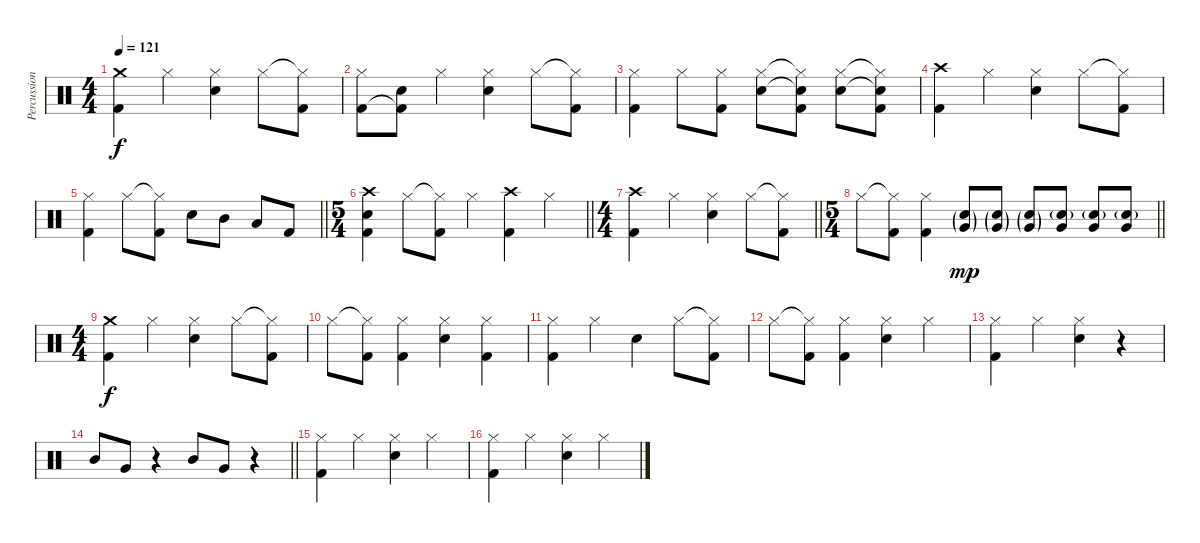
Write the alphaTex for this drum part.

\track ("Percussioni" "Percussion") {instrument percussion}
\staff {score}
\articulation defaults
\ts (4 4)
\tempo 121
\clef neutral
\ks c
("Crash medium (hit)" "Kick (hit) 2").4{dy f} "Hi-Hat (closed)".4 ("Hi-Hat (closed)" "Snare (hit) 2").4 "Hi-Hat (closed)".8 ("Hi-Hat (closed)"{t} "Kick (hit) 2").8 |
("Hi-Hat (closed)" "Kick (hit) 2").8 ("Snare (hit) 2" "Kick (hit) 2"{t}).8 "Hi-Hat (closed)".4 ("Hi-Hat (closed)" "Snare (hit) 2").4 "Hi-Hat (closed)".8 ("Hi-Hat (closed)"{t} "Kick (hit) 2").8 |
("Hi-Hat (closed)" "Kick (hit) 2").4 "Hi-Hat (closed)".8 ("Hi-Hat (closed)" "Kick (hit) 2").8 ("Hi-Hat (closed)" "Snare (hit) 2").8 ("Hi-Hat (closed)"{t} "Snare (hit) 2"{t} "Kick (hit) 2").8 ("Hi-Hat (closed)" "Snare (hit) 2").8 ("Hi-Hat (closed)"{t} "Snare (hit) 2"{t} "Kick (hit) 2").8 |
("Crash high (hit)" "Kick (hit) 2").4 "Hi-Hat (closed)".4 ("Hi-Hat (closed)" "Snare (hit) 2").4 "Hi-Hat (closed)".8 ("Hi-Hat (closed)"{t} "Kick (hit) 2").8 |
\barLineRight lightlight
("Hi-Hat (closed)" "Kick (hit) 2").4 "Hi-Hat (closed)".8 ("Hi-Hat (closed)"{t} "Kick (hit) 2").8 "Snare (hit) 2".8 "Mid Tom (hit)".8 "Low Tom (hit)".8 "Kick (hit) 2".8 |
\ts (5 4)
\barLineRight lightlight
("Crash high (hit)" "Snare (hit) 2" "Kick (hit) 2").4 "Hi-Hat (closed)".8 ("Hi-Hat (closed)"{t} "Kick (hit) 2").8 "Hi-Hat (closed)".4 ("Crash high (hit)" "Kick (hit) 2").4 "Hi-Hat (closed)".4 |
\ts (4 4)
\barLineRight lightlight
("Crash high (hit)" "Kick (hit) 2").4 "Hi-Hat (closed)".4 ("Hi-Hat (closed)" "Snare (hit) 2").4 "Hi-Hat (closed)".8 ("Hi-Hat (closed)"{t} "Kick (hit) 2").8 |
\ts (5 4)
\barLineRight lightlight "Hi-Hat (closed)".8
("Hi-Hat (closed)"{t} "Kick (hit) 2").8 ("Hi-Hat (closed)" "Kick (hit) 2").4 ("Snare (hit) 2"{g} "Very Low Tom (hit)"{g}).8{dy mp} ("Snare (hit) 2"{g} "Very Low Tom (hit)"{g}).8 ("Snare (hit) 2"{g} "Very Low Tom (hit)"{g}).8 ("Snare (hit) 2"{g} "Very Low Tom (hit)").8 ("Snare (hit) 2"{g} "Very Low Tom (hit)").8 ("Snare (hit) 2"{g} "Very Low Tom (hit)").8 |
\ts (4 4)
("Crash medium (hit)" "Kick (hit) 2").4{dy f} "Hi-Hat (closed)".4 ("Hi-Hat (closed)" "Snare (hit) 2").4 "Hi-Hat (closed)".8 ("Hi-Hat (closed)"{t} "Kick (hit) 2").8 |
"Hi-Hat (closed)".8 ("Hi-Hat (closed)"{t} "Kick (hit) 2").8 ("Hi-Hat (closed)" "Kick (hit) 2").4 ("Hi-Hat (closed)" "Snare (hit) 2").4 ("Hi-Hat (closed)" "Kick (hit) 2").4 |
("Hi-Hat (closed)" "Kick (hit) 2").4 "Hi-Hat (closed)".4 "Snare (hit) 2".4 "Hi-Hat (closed)".8 ("Hi-Hat (closed)"{t} "Kick (hit) 2").8 |
"Hi-Hat (closed)".8 ("Hi-Hat (closed)"{t} "Kick (hit) 2").8 ("Hi-Hat (closed)" "Kick (hit) 2").4 ("Hi-Hat (closed)" "Snare (hit) 2").4 "Hi-Hat (closed)".4 |
("Hi-Hat (closed)" "Kick (hit) 2").4 "Hi-Hat (closed)".4 ("Hi-Hat (closed)" "Snare (hit) 2").4 r.4 |
\barLineRight lightlight "Mid Tom (hit)".8 "Very Low Tom (hit)".8
r.4 "Mid Tom (hit)".8 "Very Low Tom (hit)".8 r.4 |
("Hi-Hat (closed)" "Kick (hit) 2").4 "Hi-Hat (closed)".4 ("Hi-Hat (closed)" "Snare (hit) 2").4 "Hi-Hat (closed)".4 |
("Hi-Hat (closed)" "Kick (hit) 2").4 "Hi-Hat (closed)".4 ("Hi-Hat (closed)" "Snare (hit) 2").4 "Hi-Hat (closed)".4
